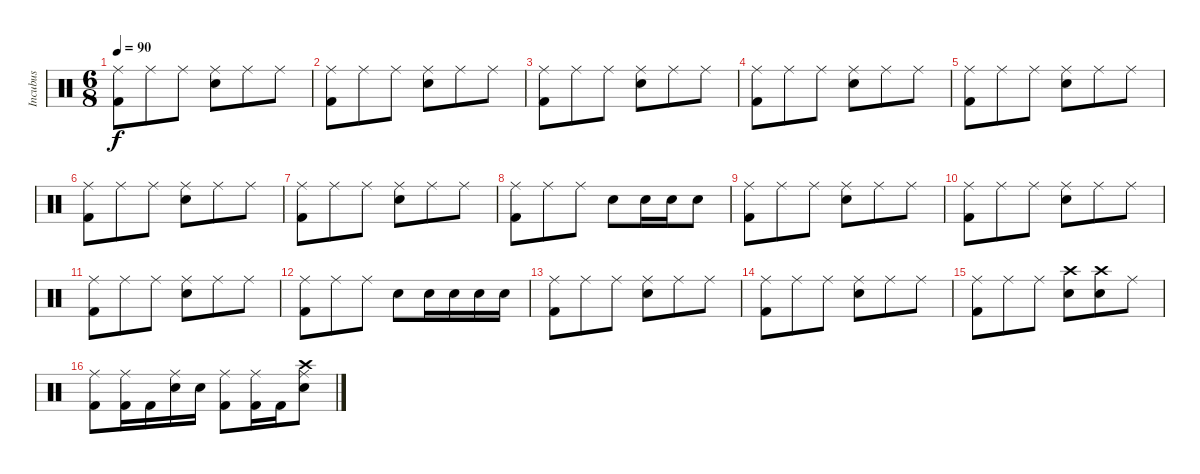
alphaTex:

\track ("Incubus" "Incubus") {instrument percussion}
\staff {score}
\articulation defaults
\ts (6 8)
\tempo 90
\clef neutral
\ks c
("Ride (middle)" "Kick (hit) 2").8{dy f} "Ride (middle)".8 "Ride (middle)".8 ("Ride (middle)" "Electric Snare (hit)").8 "Ride (middle)".8 "Ride (middle)".8 |
("Ride (middle)" "Kick (hit) 2").8 "Ride (middle)".8 "Ride (middle)".8 ("Ride (middle)" "Electric Snare (hit)").8 "Ride (middle)".8 "Ride (middle)".8 |
("Ride (middle)" "Kick (hit) 2").8 "Ride (middle)".8 "Ride (middle)".8 ("Ride (middle)" "Electric Snare (hit)").8 "Ride (middle)".8 "Ride (middle)".8 |
("Ride (middle)" "Kick (hit) 2").8 "Ride (middle)".8 "Ride (middle)".8 ("Ride (middle)" "Electric Snare (hit)").8 "Ride (middle)".8 "Ride (middle)".8 |
("Ride (middle)" "Kick (hit) 2").8 "Ride (middle)".8 "Ride (middle)".8 ("Ride (middle)" "Electric Snare (hit)").8 "Ride (middle)".8 "Ride (middle)".8 |
("Ride (middle)" "Kick (hit) 2").8 "Ride (middle)".8 "Ride (middle)".8 ("Ride (middle)" "Electric Snare (hit)").8 "Ride (middle)".8 "Ride (middle)".8 |
("Ride (middle)" "Kick (hit) 2").8 "Ride (middle)".8 "Ride (middle)".8 ("Ride (middle)" "Electric Snare (hit)").8 "Ride (middle)".8 "Ride (middle)".8 |
("Ride (middle)" "Kick (hit) 2").8 "Ride (middle)".8 "Ride (middle)".8 "Electric Snare (hit)".8 "Electric Snare (hit)".16 "Electric Snare (hit)".16 "Electric Snare (hit)".8 |
("Ride (middle)" "Kick (hit) 2").8 "Ride (middle)".8 "Ride (middle)".8 ("Ride (middle)" "Electric Snare (hit)").8 "Ride (middle)".8 "Ride (middle)".8 |
("Ride (middle)" "Kick (hit) 2").8 "Ride (middle)".8 "Ride (middle)".8 ("Ride (middle)" "Electric Snare (hit)").8 "Ride (middle)".8 "Ride (middle)".8 |
("Ride (middle)" "Kick (hit) 2").8 "Ride (middle)".8 "Ride (middle)".8 ("Ride (middle)" "Electric Snare (hit)").8 "Ride (middle)".8 "Ride (middle)".8 |
("Ride (middle)" "Kick (hit) 2").8 "Ride (middle)".8 "Ride (middle)".8 "Electric Snare (hit)".8 "Electric Snare (hit)".16 "Electric Snare (hit)".16 "Electric Snare (hit)".16 "Electric Snare (hit)".16 |
("Ride (middle)" "Kick (hit) 2").8 "Ride (middle)".8 "Ride (middle)".8 ("Ride (middle)" "Electric Snare (hit)").8 "Ride (middle)".8 "Ride (middle)".8 |
("Ride (middle)" "Kick (hit) 2").8 "Ride (middle)".8 "Ride (middle)".8 ("Ride (middle)" "Electric Snare (hit)").8 "Ride (middle)".8 "Ride (middle)".8 |
("Ride (middle)" "Kick (hit) 2").8 "Ride (middle)".8 "Ride (middle)".8 ("Crash high (hit)" "Electric Snare (hit)").8 ("Crash high (hit)" "Electric Snare (hit)").8 "Ride (middle)".8 |
("Ride (middle)" "Kick (hit) 2").8 ("Ride (middle)" "Kick (hit) 2").16 "Kick (hit) 2".16 ("Ride (middle)" "Electric Snare (hit)").16 "Electric Snare (hit)".16 ("Ride (middle)" "Kick (hit) 2").8 ("Ride (middle)" "Kick (hit) 2").16 "Kick (hit) 2".16 ("Ride (middle)" "Crash high (hit)" "Electric Snare (hit)").8
